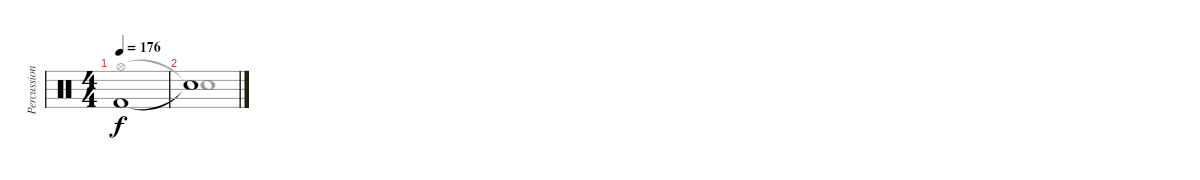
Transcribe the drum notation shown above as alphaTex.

\track ("Percussion" "Percussion") {instrument percussion}
\staff {score}
\articulation defaults
\voice
\ts (4 4)
\tempo 176
\clef neutral
\ks c "Kick (hit) 2".1{dy f}
|
"Snare (hit)"{t}.1
\voice
\clef neutral
\ottava regular
\simile none
\ks c "Hi-Hat (open)".1{dy f}
|
"Snare (hit)"{t}.1
